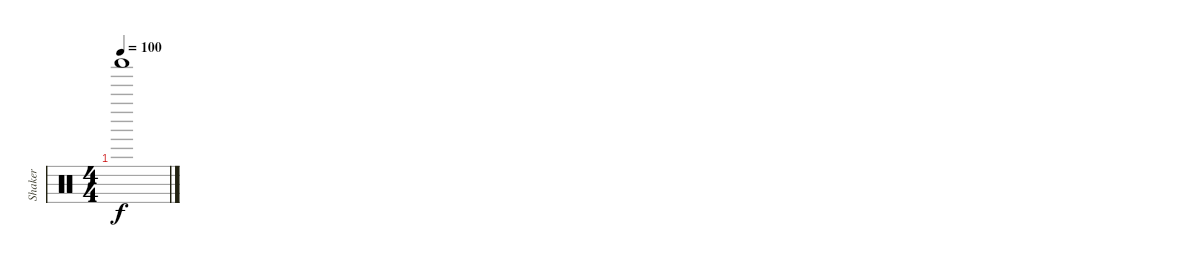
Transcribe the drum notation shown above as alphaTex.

\track ("Shaker" "Shaker") {instrument percussion}
\staff {score}
\articulation defaults
\ts (4 4)
\tempo 100
\clef neutral
\ks c "Shaker (hit)".1{dy f}
